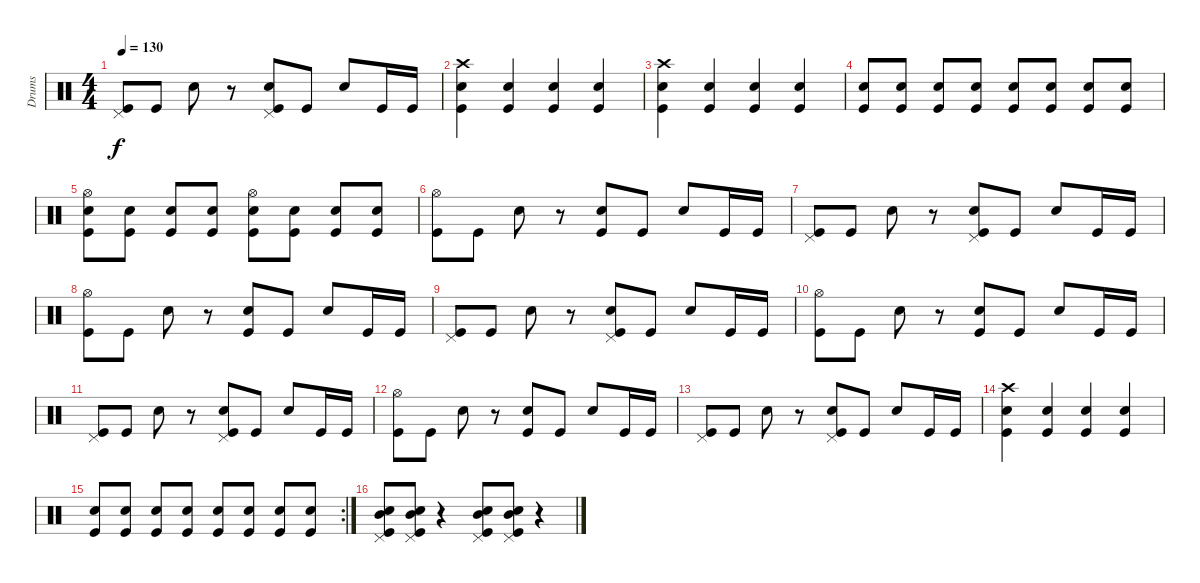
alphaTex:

\track ("Drums" "Drums") {instrument percussion}
\staff {score}
\articulation defaults
\ts (4 4)
\tempo 130
\clef neutral
\ks c
("Pedal Hi-Hat (hit)" "Kick (hit)").8{dy f} "Kick (hit)".8 "Snare (hit) 2".8 r.8 ("Pedal Hi-Hat (hit)" "Snare (hit) 2" "Kick (hit)").8 "Kick (hit)".8 "Snare (hit) 2".8 "Kick (hit)".16 "Kick (hit)".16 |
("Crash high (hit)" "Snare (hit) 2" "Kick (hit)").4 ("Snare (hit) 2" "Kick (hit)").4 ("Snare (hit) 2" "Kick (hit)").4 ("Snare (hit) 2" "Kick (hit)").4 |
("Crash high (hit)" "Snare (hit) 2" "Kick (hit)").4 ("Snare (hit) 2" "Kick (hit)").4 ("Snare (hit) 2" "Kick (hit)").4 ("Snare (hit) 2" "Kick (hit)").4 |
("Snare (hit) 2" "Kick (hit)").8 ("Snare (hit) 2" "Kick (hit)").8 ("Snare (hit) 2" "Kick (hit)").8 ("Snare (hit) 2" "Kick (hit)").8 ("Snare (hit) 2" "Kick (hit)").8 ("Snare (hit) 2" "Kick (hit)").8 ("Snare (hit) 2" "Kick (hit)").8 ("Snare (hit) 2" "Kick (hit)").8 |
("Hi-Hat (open)" "Snare (hit) 2" "Kick (hit)").8 ("Snare (hit) 2" "Kick (hit)").8 ("Snare (hit) 2" "Kick (hit)").8 ("Snare (hit) 2" "Kick (hit)").8 ("Hi-Hat (open)" "Snare (hit) 2" "Kick (hit)").8 ("Snare (hit) 2" "Kick (hit)").8 ("Snare (hit) 2" "Kick (hit)").8 ("Snare (hit) 2" "Kick (hit)").8 |
("Hi-Hat (open)" "Kick (hit)").8 "Kick (hit)".8 "Snare (hit) 2".8 r.8 ("Snare (hit) 2" "Kick (hit)").8 "Kick (hit)".8 "Snare (hit) 2".8 "Kick (hit)".16 "Kick (hit)".16 |
("Pedal Hi-Hat (hit)" "Kick (hit)").8 "Kick (hit)".8 "Snare (hit) 2".8 r.8 ("Pedal Hi-Hat (hit)" "Snare (hit) 2" "Kick (hit)").8 "Kick (hit)".8 "Snare (hit) 2".8 "Kick (hit)".16 "Kick (hit)".16 |
("Hi-Hat (open)" "Kick (hit)").8 "Kick (hit)".8 "Snare (hit) 2".8 r.8 ("Snare (hit) 2" "Kick (hit)").8 "Kick (hit)".8 "Snare (hit) 2".8 "Kick (hit)".16 "Kick (hit)".16 |
("Pedal Hi-Hat (hit)" "Kick (hit)").8 "Kick (hit)".8 "Snare (hit) 2".8 r.8 ("Pedal Hi-Hat (hit)" "Snare (hit) 2" "Kick (hit)").8 "Kick (hit)".8 "Snare (hit) 2".8 "Kick (hit)".16 "Kick (hit)".16 |
("Hi-Hat (open)" "Kick (hit)").8 "Kick (hit)".8 "Snare (hit) 2".8 r.8 ("Snare (hit) 2" "Kick (hit)").8 "Kick (hit)".8 "Snare (hit) 2".8 "Kick (hit)".16 "Kick (hit)".16 |
("Pedal Hi-Hat (hit)" "Kick (hit)").8 "Kick (hit)".8 "Snare (hit) 2".8 r.8 ("Pedal Hi-Hat (hit)" "Snare (hit) 2" "Kick (hit)").8 "Kick (hit)".8 "Snare (hit) 2".8 "Kick (hit)".16 "Kick (hit)".16 |
("Hi-Hat (open)" "Kick (hit)").8 "Kick (hit)".8 "Snare (hit) 2".8 r.8 ("Snare (hit) 2" "Kick (hit)").8 "Kick (hit)".8 "Snare (hit) 2".8 "Kick (hit)".16 "Kick (hit)".16 |
("Pedal Hi-Hat (hit)" "Kick (hit)").8 "Kick (hit)".8 "Snare (hit) 2".8 r.8 ("Pedal Hi-Hat (hit)" "Snare (hit) 2" "Kick (hit)").8 "Kick (hit)".8 "Snare (hit) 2".8 "Kick (hit)".16 "Kick (hit)".16 |
("Crash high (hit)" "Snare (hit) 2" "Kick (hit)").4 ("Snare (hit) 2" "Kick (hit)").4 ("Snare (hit) 2" "Kick (hit)").4 ("Snare (hit) 2" "Kick (hit)").4 |
\rc 2
("Snare (hit) 2" "Kick (hit)").8 ("Snare (hit) 2" "Kick (hit)").8 ("Snare (hit) 2" "Kick (hit)").8 ("Snare (hit) 2" "Kick (hit)").8 ("Snare (hit) 2" "Kick (hit)").8 ("Snare (hit) 2" "Kick (hit)").8 ("Snare (hit) 2" "Kick (hit)").8 ("Snare (hit) 2" "Kick (hit)").8 |
("Pedal Hi-Hat (hit)" "Snare (hit) 2" "Mid Tom (hit)" "Kick (hit)").8 ("Pedal Hi-Hat (hit)" "Snare (hit) 2" "Mid Tom (hit)" "Kick (hit)").8 r.4 ("Pedal Hi-Hat (hit)" "Snare (hit) 2" "Mid Tom (hit)" "Kick (hit)").8 ("Pedal Hi-Hat (hit)" "Snare (hit) 2" "Mid Tom (hit)" "Kick (hit)").8 r.4
